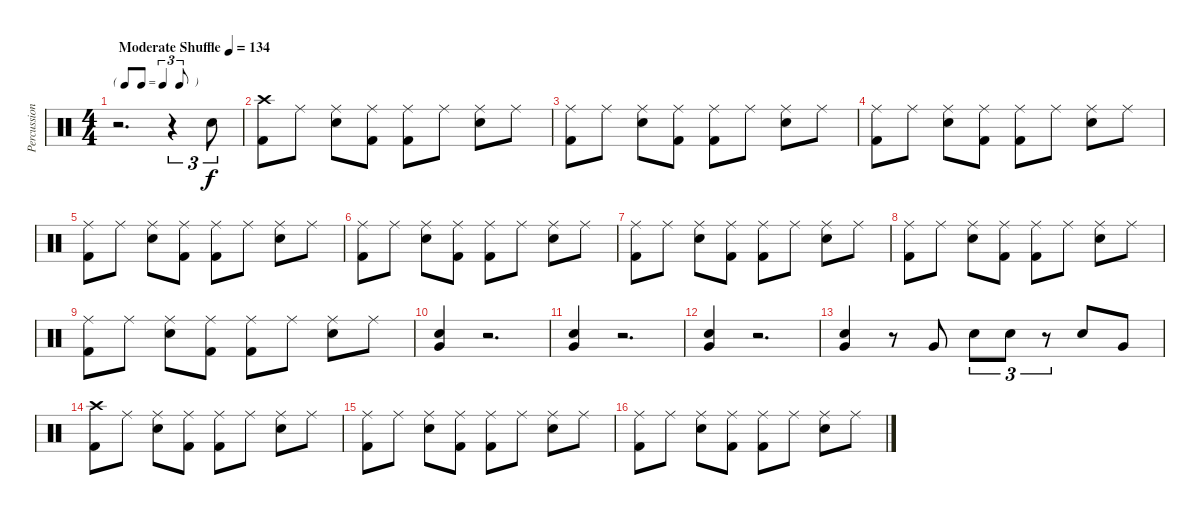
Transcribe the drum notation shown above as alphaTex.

\track ("Percussion" "Percussion") {instrument percussion}
\staff {score}
\articulation defaults
\ts (4 4)
\tf triplet8th
\tempo (134 "Moderate Shuffle")
\clef neutral
\ks c
r.2{d dy f} r.4{tu (3 2)} "Snare (hit) 2".8{tu (3 2)} |
("Crash high (hit)" "Kick (hit) 2").8 "Ride (middle)".8 ("Ride (middle)" "Snare (hit) 2").8 ("Ride (middle)" "Kick (hit) 2").8 ("Ride (middle)" "Kick (hit) 2").8 "Ride (middle)".8 ("Ride (middle)" "Snare (hit) 2").8 "Ride (middle)".8 |
("Ride (middle)" "Kick (hit) 2").8 "Ride (middle)".8 ("Ride (middle)" "Snare (hit) 2").8 ("Ride (middle)" "Kick (hit) 2").8 ("Ride (middle)" "Kick (hit) 2").8 "Ride (middle)".8 ("Ride (middle)" "Snare (hit) 2").8 "Ride (middle)".8 |
("Ride (middle)" "Kick (hit) 2").8 "Ride (middle)".8 ("Ride (middle)" "Snare (hit) 2").8 ("Ride (middle)" "Kick (hit) 2").8 ("Ride (middle)" "Kick (hit) 2").8 "Ride (middle)".8 ("Ride (middle)" "Snare (hit) 2").8 "Ride (middle)".8 |
("Ride (middle)" "Kick (hit) 2").8 "Ride (middle)".8 ("Ride (middle)" "Snare (hit) 2").8 ("Ride (middle)" "Kick (hit) 2").8 ("Ride (middle)" "Kick (hit) 2").8 "Ride (middle)".8 ("Ride (middle)" "Snare (hit) 2").8 "Ride (middle)".8 |
("Ride (middle)" "Kick (hit) 2").8 "Ride (middle)".8 ("Ride (middle)" "Snare (hit) 2").8 ("Ride (middle)" "Kick (hit) 2").8 ("Ride (middle)" "Kick (hit) 2").8 "Ride (middle)".8 ("Ride (middle)" "Snare (hit) 2").8 "Ride (middle)".8 |
("Ride (middle)" "Kick (hit) 2").8 "Ride (middle)".8 ("Ride (middle)" "Snare (hit) 2").8 ("Ride (middle)" "Kick (hit) 2").8 ("Ride (middle)" "Kick (hit) 2").8 "Ride (middle)".8 ("Ride (middle)" "Snare (hit) 2").8 "Ride (middle)".8 |
("Ride (middle)" "Kick (hit) 2").8 "Ride (middle)".8 ("Ride (middle)" "Snare (hit) 2").8 ("Ride (middle)" "Kick (hit) 2").8 ("Ride (middle)" "Kick (hit) 2").8 "Ride (middle)".8 ("Ride (middle)" "Snare (hit) 2").8 "Ride (middle)".8 |
("Ride (middle)" "Kick (hit) 2").8 "Ride (middle)".8 ("Ride (middle)" "Snare (hit) 2").8 ("Ride (middle)" "Kick (hit) 2").8 ("Ride (middle)" "Kick (hit) 2").8 "Ride (middle)".8 ("Ride (middle)" "Snare (hit) 2").8 "Ride (middle)".8 |
("Snare (hit) 2" "Very Low Tom (hit)").4 r.2{d} |
("Snare (hit) 2" "Very Low Tom (hit)").4 r.2{d} |
("Snare (hit) 2" "Very Low Tom (hit)").4 r.2{d} |
("Snare (hit) 2" "Very Low Tom (hit)").4 r.8 "Very Low Tom (hit)".8 "Snare (hit) 2".8{tu (3 2)} "Snare (hit) 2".8{tu (3 2)} r.8{tu (3 2)} "Snare (hit) 2".8 "Very Low Tom (hit)".8 |
("Crash high (hit)" "Kick (hit) 2").8 "Ride (middle)".8 ("Ride (middle)" "Snare (hit) 2").8 ("Ride (middle)" "Kick (hit) 2").8 ("Ride (middle)" "Kick (hit) 2").8 "Ride (middle)".8 ("Ride (middle)" "Snare (hit) 2").8 "Ride (middle)".8 |
("Ride (middle)" "Kick (hit) 2").8 "Ride (middle)".8 ("Ride (middle)" "Snare (hit) 2").8 ("Ride (middle)" "Kick (hit) 2").8 ("Ride (middle)" "Kick (hit) 2").8 "Ride (middle)".8 ("Ride (middle)" "Snare (hit) 2").8 "Ride (middle)".8 |
("Ride (middle)" "Kick (hit) 2").8 "Ride (middle)".8 ("Ride (middle)" "Snare (hit) 2").8 ("Ride (middle)" "Kick (hit) 2").8 ("Ride (middle)" "Kick (hit) 2").8 "Ride (middle)".8 ("Ride (middle)" "Snare (hit) 2").8 "Ride (middle)".8
